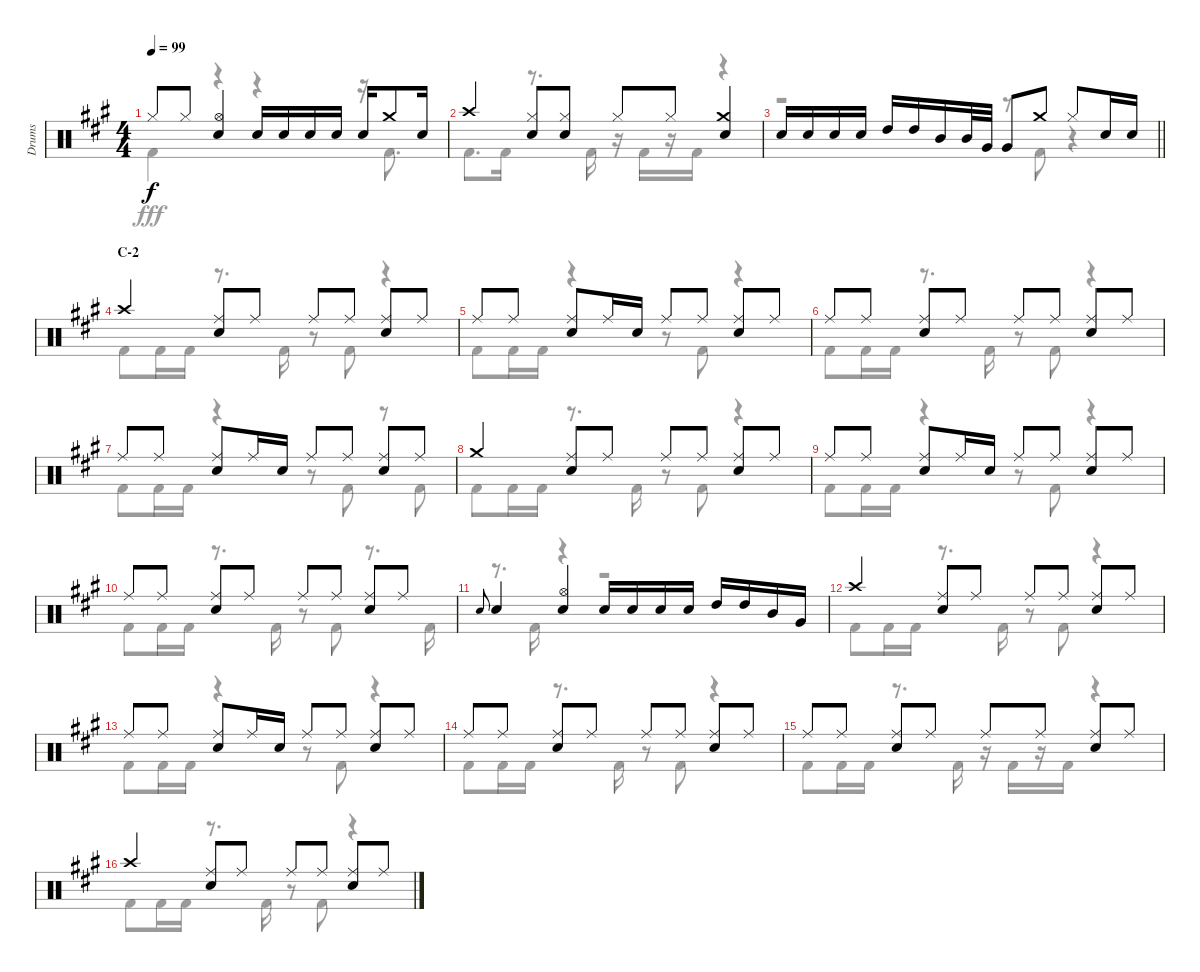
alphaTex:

\track ("Drums" "Drums") {instrument percussion}
\staff {score}
\articulation defaults
\voice
\ts (4 4)
\tempo 99
\clef neutral
\ks a "Hi-Hat (closed)".8{dy f} "Hi-Hat (closed)".8
("Hi-Hat (open)" "Snare (hit) 2").4 "Snare (hit) 2".16 "Snare (hit) 2".16 "Snare (hit) 2".16 "Snare (hit) 2".16 "Snare (hit) 2".16 "Crash medium (hit)".8 "Snare (hit) 2".16 |
"Crash high (hit)".4 ("Hi-Hat (closed)" "Snare (hit) 2").8 ("Hi-Hat (closed)" "Snare (hit) 2").8 "Hi-Hat (closed)".8 "Hi-Hat (closed)".8 ("Crash medium (hit)" "Snare (hit) 2").4 |
\barLineRight lightlight "Snare (hit) 2".16 "Snare (hit) 2".16 "Snare (hit) 2".16 "Snare (hit) 2".16 "High Tom (hit)".16 "High Tom (hit)".16 "Mid Tom (hit)".16 "Mid Tom (hit)".32 "Very Low Tom (hit)".32 "Very Low Tom (hit)".8 "Crash medium (hit)".8 "Hi-Hat (closed)".8 "Snare (hit) 2".16 "Snare (hit) 2".16
|
\section ("" "C-2")
"Crash high (hit)".4 ("Ride (middle)" "Snare (hit) 2").8 "Ride (middle)".8 "Ride (middle)".8 "Ride (middle)".8 ("Ride (middle)" "Snare (hit) 2").8 "Ride (middle)".8 |
"Ride (middle)".8 "Ride (middle)".8 ("Ride (middle)" "Snare (hit) 2").8 "Ride (middle)".16 "Snare (hit) 2".16 "Ride (middle)".8 "Ride (middle)".8 ("Ride (middle)" "Snare (hit) 2").8 "Ride (middle)".8 |
"Ride (middle)".8 "Ride (middle)".8 ("Ride (middle)" "Snare (hit) 2").8 "Ride (middle)".8 "Ride (middle)".8 "Ride (middle)".8 ("Ride (middle)" "Snare (hit) 2").8 "Ride (middle)".8 |
"Ride (middle)".8 "Ride (middle)".8 ("Ride (middle)" "Snare (hit) 2").8 "Ride (middle)".16 "Snare (hit) 2".16 "Ride (middle)".8 "Ride (middle)".8 ("Ride (middle)" "Snare (hit) 2").8 "Ride (middle)".8 |
"Crash medium (hit)".4 ("Ride (middle)" "Snare (hit) 2").8 "Ride (middle)".8 "Ride (middle)".8 "Ride (middle)".8 ("Ride (middle)" "Snare (hit) 2").8 "Ride (middle)".8 |
"Ride (middle)".8 "Ride (middle)".8 ("Ride (middle)" "Snare (hit) 2").8 "Ride (middle)".16 "Snare (hit) 2".16 "Ride (middle)".8 "Ride (middle)".8 ("Ride (middle)" "Snare (hit) 2").8 "Ride (middle)".8 |
"Ride (middle)".8 "Ride (middle)".8 ("Ride (middle)" "Snare (hit) 2").8 "Ride (middle)".8 "Ride (middle)".8 "Ride (middle)".8 ("Ride (middle)" "Snare (hit) 2").8 "Ride (middle)".8 |
"Snare (hit) 2".8{gr onbeat} "Snare (hit) 2".4 ("Hi-Hat (open)" "Snare (hit) 2").4 "Snare (hit) 2".16 "Snare (hit) 2".16 "Snare (hit) 2".16 "Snare (hit) 2".16 "High Tom (hit)".16 "High Tom (hit)".16 "Mid Tom (hit)".16 "Very Low Tom (hit)".16 |
"Crash high (hit)".4 ("Ride (middle)" "Snare (hit) 2").8 "Ride (middle)".8 "Ride (middle)".8 "Ride (middle)".8 ("Ride (middle)" "Snare (hit) 2").8 "Ride (middle)".8 |
"Ride (middle)".8 "Ride (middle)".8 ("Ride (middle)" "Snare (hit) 2").8 "Ride (middle)".16 "Snare (hit) 2".16 "Ride (middle)".8 "Ride (middle)".8 ("Ride (middle)" "Snare (hit) 2").8 "Ride (middle)".8 |
"Ride (middle)".8 "Ride (middle)".8 ("Ride (middle)" "Snare (hit) 2").8 "Ride (middle)".8 "Ride (middle)".8 "Ride (middle)".8 ("Ride (middle)" "Snare (hit) 2").8 "Ride (middle)".8 |
"Ride (middle)".8 "Ride (middle)".8 ("Ride (middle)" "Snare (hit) 2").8 "Ride (middle)".8 "Ride (middle)".8 "Ride (middle)".8 ("Ride (middle)" "Snare (hit) 2").8 "Ride (middle)".8 |
"Crash high (hit)".4 ("Ride (middle)" "Snare (hit) 2").8 "Ride (middle)".8 "Ride (middle)".8 "Ride (middle)".8 ("Ride (middle)" "Snare (hit) 2").8 "Ride (middle)".8
\voice
\clef neutral
\ottava regular
\simile none
\ks a "Kick (hit) 2".4{dy fff}
r.4 r.4 r.16 "Kick (hit) 2".8{d} |
"Kick (hit) 2".8{d} "Kick (hit) 2".16 r.8{d} "Kick (hit) 2".16 r.16 "Kick (hit) 2".16 r.16 "Kick (hit) 2".16 r.4 |
\barLineRight lightlight
r.2 r.8 "Kick (hit) 2".8 r.4 |
"Kick (hit) 2".8 "Kick (hit) 2".16 "Kick (hit) 2".16 r.8{d} "Kick (hit) 2".16 r.8 "Kick (hit) 2".8 r.4 |
"Kick (hit) 2".8 "Kick (hit) 2".16 "Kick (hit) 2".16 r.4 r.8 "Kick (hit) 2".8 r.4 |
"Kick (hit) 2".8 "Kick (hit) 2".16 "Kick (hit) 2".16 r.8{d} "Kick (hit) 2".16 r.8 "Kick (hit) 2".8 r.4 |
"Kick (hit) 2".8 "Kick (hit) 2".16 "Kick (hit) 2".16 r.4 r.8 "Kick (hit) 2".8 r.8 "Kick (hit) 2".8 |
"Kick (hit) 2".8 "Kick (hit) 2".16 "Kick (hit) 2".16 r.8{d} "Kick (hit) 2".16 r.8 "Kick (hit) 2".8 r.4 |
"Kick (hit) 2".8 "Kick (hit) 2".16 "Kick (hit) 2".16 r.4 r.8 "Kick (hit) 2".8 r.4 |
"Kick (hit) 2".8 "Kick (hit) 2".16 "Kick (hit) 2".16 r.8{d} "Kick (hit) 2".16 r.8 "Kick (hit) 2".8 r.8{d} "Kick (hit) 2".16 |
r.8{d} "Kick (hit) 2".16 r.4 r.2 |
"Kick (hit) 2".8 "Kick (hit) 2".16 "Kick (hit) 2".16 r.8{d} "Kick (hit) 2".16 r.8 "Kick (hit) 2".8 r.4 |
"Kick (hit) 2".8 "Kick (hit) 2".16 "Kick (hit) 2".16 r.4 r.8 "Kick (hit) 2".8 r.4 |
"Kick (hit) 2".8 "Kick (hit) 2".16 "Kick (hit) 2".16 r.8{d} "Kick (hit) 2".16 r.8 "Kick (hit) 2".8 r.4 |
"Kick (hit) 2".8 "Kick (hit) 2".16 "Kick (hit) 2".16 r.8{d} "Kick (hit) 2".16 r.16 "Kick (hit) 2".16 r.16 "Kick (hit) 2".16 r.4 |
"Kick (hit) 2".8 "Kick (hit) 2".16 "Kick (hit) 2".16 r.8{d} "Kick (hit) 2".16 r.8 "Kick (hit) 2".8 r.4
